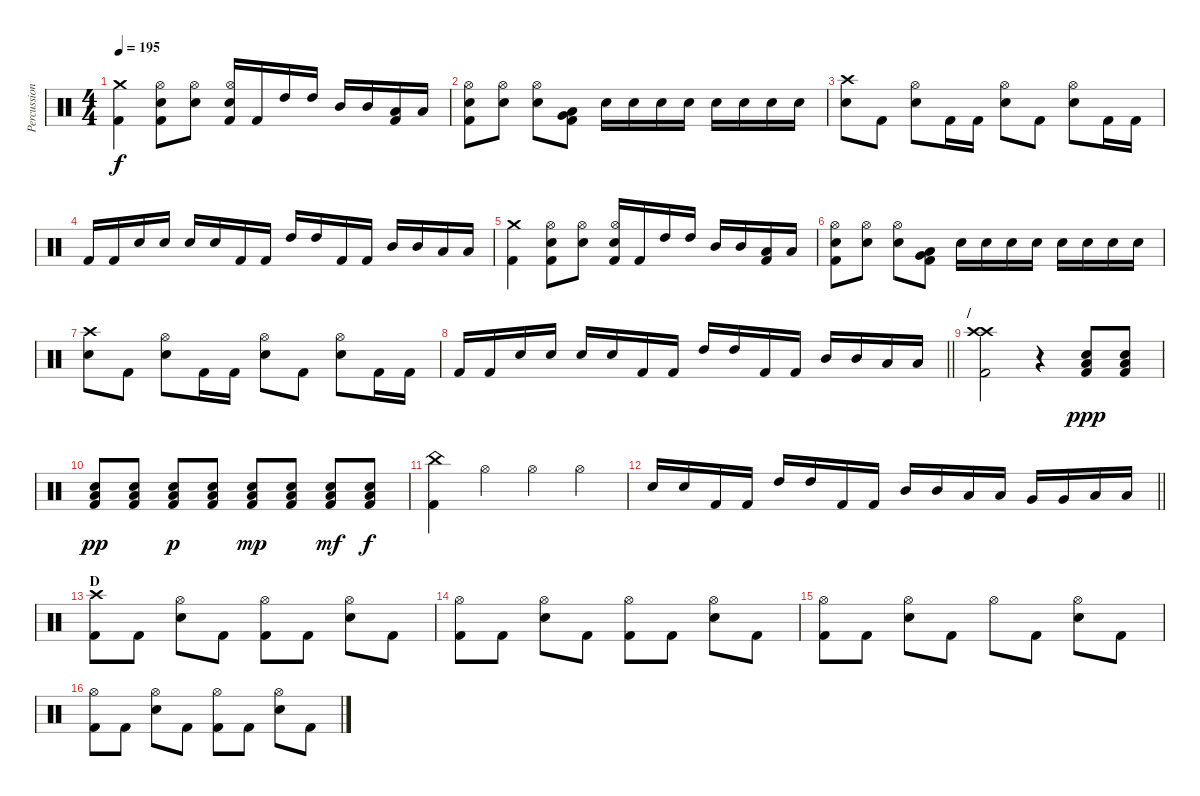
\track ("Percussion" "Percussion") {instrument percussion}
\staff {score}
\articulation defaults
\ts (4 4)
\tempo 195
\clef neutral
\ks c
("Crash medium (hit)" "Kick (hit) 2").4{dy f} ("Hi-Hat (open)" "Electric Snare (hit)" "Kick (hit) 2").8 ("Hi-Hat (open)" "Electric Snare (hit)").8 ("Hi-Hat (open)" "Electric Snare (hit)" "Kick (hit) 2").16 "Kick (hit) 2".16 "High Tom (hit)".16 "High Tom (hit)".16 "Mid Tom (hit)".16 "Mid Tom (hit)".16 ("Low Tom (hit)" "Kick (hit) 2").16 "Low Tom (hit)".16 |
("Hi-Hat (open)" "Electric Snare (hit)" "Kick (hit) 2").8 ("Hi-Hat (open)" "Electric Snare (hit)").8 ("Hi-Hat (open)" "Electric Snare (hit)").8 ("Very Low Tom (hit)" "Low Floor Tom (hit)" "Kick (hit) 2").8 "Electric Snare (hit)".16 "Electric Snare (hit)".16 "Electric Snare (hit)".16 "Electric Snare (hit)".16 "Electric Snare (hit)".16 "Electric Snare (hit)".16 "Electric Snare (hit)".16 "Electric Snare (hit)".16 |
("Crash high (hit)" "Electric Snare (hit)").8 "Kick (hit) 2".8 ("Hi-Hat (open)" "Electric Snare (hit)").8 "Kick (hit) 2".16 "Kick (hit) 2".16 ("Hi-Hat (open)" "Electric Snare (hit)").8 "Kick (hit) 2".8 ("Hi-Hat (open)" "Electric Snare (hit)").8 "Kick (hit) 2".16 "Kick (hit) 2".16 |
"Kick (hit) 2".16 "Kick (hit) 2".16 "Electric Snare (hit)".16 "Electric Snare (hit)".16 "Electric Snare (hit)".16 "Electric Snare (hit)".16 "Kick (hit) 2".16 "Kick (hit) 2".16 "High Tom (hit)".16 "High Tom (hit)".16 "Kick (hit) 2".16 "Kick (hit) 2".16 "Mid Tom (hit)".16 "Mid Tom (hit)".16 "Low Tom (hit)".16 "Low Tom (hit)".16 |
("Crash medium (hit)" "Kick (hit) 2").4 ("Hi-Hat (open)" "Electric Snare (hit)" "Kick (hit) 2").8 ("Hi-Hat (open)" "Electric Snare (hit)").8 ("Hi-Hat (open)" "Electric Snare (hit)" "Kick (hit) 2").16 "Kick (hit) 2".16 "High Tom (hit)".16 "High Tom (hit)".16 "Mid Tom (hit)".16 "Mid Tom (hit)".16 ("Low Tom (hit)" "Kick (hit) 2").16 "Low Tom (hit)".16 |
("Hi-Hat (open)" "Electric Snare (hit)" "Kick (hit) 2").8 ("Hi-Hat (open)" "Electric Snare (hit)").8 ("Hi-Hat (open)" "Electric Snare (hit)").8 ("Very Low Tom (hit)" "Low Floor Tom (hit)" "Kick (hit) 2").8 "Electric Snare (hit)".16 "Electric Snare (hit)".16 "Electric Snare (hit)".16 "Electric Snare (hit)".16 "Electric Snare (hit)".16 "Electric Snare (hit)".16 "Electric Snare (hit)".16 "Electric Snare (hit)".16 |
("Crash high (hit)" "Electric Snare (hit)").8 "Kick (hit) 2".8 ("Hi-Hat (open)" "Electric Snare (hit)").8 "Kick (hit) 2".16 "Kick (hit) 2".16 ("Hi-Hat (open)" "Electric Snare (hit)").8 "Kick (hit) 2".8 ("Hi-Hat (open)" "Electric Snare (hit)").8 "Kick (hit) 2".16 "Kick (hit) 2".16 |
\barLineRight lightlight "Kick (hit) 2".16 "Kick (hit) 2".16 "Electric Snare (hit)".16 "Electric Snare (hit)".16 "Electric Snare (hit)".16 "Electric Snare (hit)".16 "Kick (hit) 2".16 "Kick (hit) 2".16 "High Tom (hit)".16 "High Tom (hit)".16 "Kick (hit) 2".16 "Kick (hit) 2".16 "Mid Tom (hit)".16 "Mid Tom (hit)".16 "Low Tom (hit)".16 "Low Tom (hit)".16
|
\section ("" "/")
("Crash high (hit)" "Crash high (hit)" "Kick (hit) 2").2 r.4 ("Electric Snare (hit)" "Low Floor Tom (hit)" "Kick (hit) 2").8{dy ppp} ("Electric Snare (hit)" "Low Floor Tom (hit)" "Kick (hit) 2").8 |
("Electric Snare (hit)" "Low Floor Tom (hit)" "Kick (hit) 2").8{dy pp} ("Electric Snare (hit)" "Low Floor Tom (hit)" "Kick (hit) 2").8 ("Electric Snare (hit)" "Low Floor Tom (hit)" "Kick (hit) 2").8{dy p} ("Electric Snare (hit)" "Low Floor Tom (hit)" "Kick (hit) 2").8 ("Electric Snare (hit)" "Low Floor Tom (hit)" "Kick (hit) 2").8{dy mp} ("Electric Snare (hit)" "Low Floor Tom (hit)" "Kick (hit) 2").8 ("Electric Snare (hit)" "Low Floor Tom (hit)" "Kick (hit) 2").8{dy mf} ("Electric Snare (hit)" "Low Floor Tom (hit)" "Kick (hit) 2").8{dy f} |
("China (hit)" "Kick (hit) 2").4 "Hi-Hat (open)".4 "Hi-Hat (open)".4 "Hi-Hat (open)".4 |
\barLineRight lightlight "Electric Snare (hit)".16 "Electric Snare (hit)".16 "Kick (hit) 2".16 "Kick (hit) 2".16 "High Tom (hit)".16 "High Tom (hit)".16 "Kick (hit) 2".16 "Kick (hit) 2".16 "Mid Tom (hit)".16 "Mid Tom (hit)".16 "Low Tom (hit)".16 "Low Tom (hit)".16 "Very Low Tom (hit)".16 "Very Low Tom (hit)".16 "Low Floor Tom (hit)".16 "Low Floor Tom (hit)".16
|
\section ("" "D")
("Crash high (hit)" "Kick (hit) 2").8 "Kick (hit) 2".8 ("Hi-Hat (open)" "Electric Snare (hit)").8 "Kick (hit) 2".8 ("Hi-Hat (open)" "Kick (hit) 2").8 "Kick (hit) 2".8 ("Hi-Hat (open)" "Electric Snare (hit)").8 "Kick (hit) 2".8 |
("Hi-Hat (open)" "Kick (hit) 2").8 "Kick (hit) 2".8 ("Hi-Hat (open)" "Electric Snare (hit)").8 "Kick (hit) 2".8 ("Hi-Hat (open)" "Kick (hit) 2").8 "Kick (hit) 2".8 ("Hi-Hat (open)" "Electric Snare (hit)").8 "Kick (hit) 2".8 |
("Hi-Hat (open)" "Kick (hit) 2").8 "Kick (hit) 2".8 ("Hi-Hat (open)" "Electric Snare (hit)").8 "Kick (hit) 2".8 "Hi-Hat (open)".8 "Kick (hit) 2".8 ("Hi-Hat (open)" "Electric Snare (hit)").8 "Kick (hit) 2".8 |
("Hi-Hat (open)" "Kick (hit) 2").8 "Kick (hit) 2".8 ("Hi-Hat (open)" "Electric Snare (hit)").8 "Kick (hit) 2".8 ("Hi-Hat (open)" "Kick (hit) 2").8 "Kick (hit) 2".8 ("Hi-Hat (open)" "Electric Snare (hit)").8 "Kick (hit) 2".8
